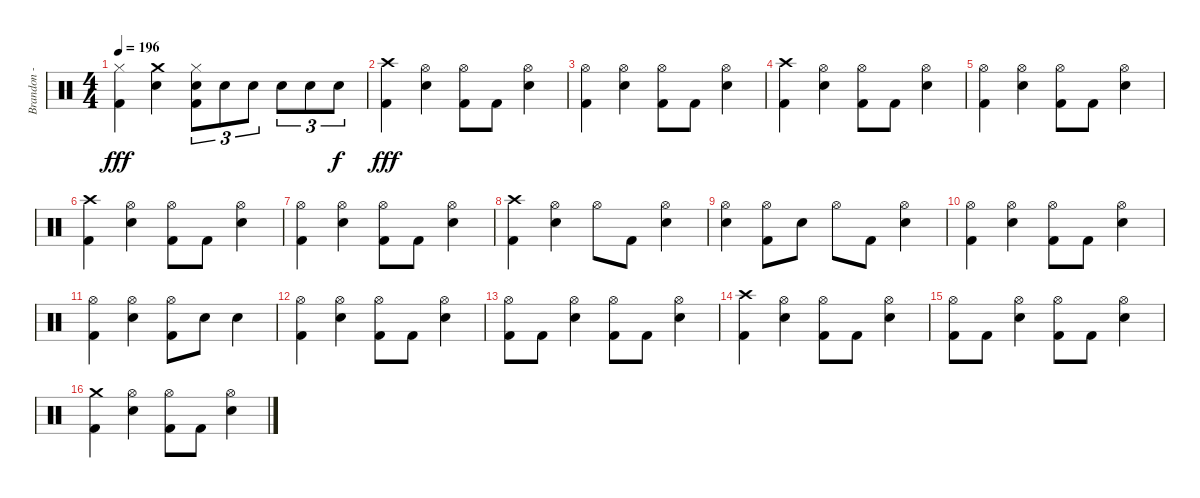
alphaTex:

\track ("Brandon - Drums" "Brandon - ") {instrument percussion}
\staff {score}
\articulation defaults
\ts (4 4)
\tempo 196
\clef neutral
\ks c
("Hi-Hat (closed)" "Kick (hit) 2").4{dy fff} ("Crash medium (hit)" "Snare (hit) 2").4 ("Snare (hit) 2" "Hi-Hat (closed)" "Kick (hit) 2").8{tu (3 2)} "Snare (hit) 2".8{tu (3 2)} "Snare (hit) 2".8{tu (3 2)} "Snare (hit) 2".8{tu (3 2)} "Snare (hit) 2".8{tu (3 2)} "Snare (hit) 2".8{tu (3 2) dy f} |
("Crash high (hit)" "Kick (hit) 2").4{dy fff} ("Hi-Hat (open)" "Snare (hit) 2").4 ("Hi-Hat (open)" "Kick (hit) 2").8 "Kick (hit) 2".8 ("Hi-Hat (open)" "Snare (hit) 2").4 |
("Hi-Hat (open)" "Kick (hit) 2").4 ("Hi-Hat (open)" "Snare (hit) 2").4 ("Hi-Hat (open)" "Kick (hit) 2").8 "Kick (hit) 2".8 ("Hi-Hat (open)" "Snare (hit) 2").4 |
("Crash high (hit)" "Kick (hit) 2").4 ("Hi-Hat (open)" "Snare (hit) 2").4 ("Hi-Hat (open)" "Kick (hit) 2").8 "Kick (hit) 2".8 ("Hi-Hat (open)" "Snare (hit) 2").4 |
("Hi-Hat (open)" "Kick (hit) 2").4 ("Hi-Hat (open)" "Snare (hit) 2").4 ("Hi-Hat (open)" "Kick (hit) 2").8 "Kick (hit) 2".8 ("Hi-Hat (open)" "Snare (hit) 2").4 |
("Crash high (hit)" "Kick (hit) 2").4 ("Hi-Hat (open)" "Snare (hit) 2").4 ("Hi-Hat (open)" "Kick (hit) 2").8 "Kick (hit) 2".8 ("Hi-Hat (open)" "Snare (hit) 2").4 |
("Hi-Hat (open)" "Kick (hit) 2").4 ("Hi-Hat (open)" "Snare (hit) 2").4 ("Hi-Hat (open)" "Kick (hit) 2").8 "Kick (hit) 2".8 ("Hi-Hat (open)" "Snare (hit) 2").4 |
("Crash high (hit)" "Kick (hit) 2").4 ("Hi-Hat (open)" "Snare (hit) 2").4 "Hi-Hat (open)".8 "Kick (hit) 2".8 ("Hi-Hat (open)" "Snare (hit) 2").4 |
("Hi-Hat (open)" "Snare (hit) 2").4 ("Hi-Hat (open)" "Kick (hit) 2").8 "Snare (hit) 2".8 "Hi-Hat (open)".8 "Kick (hit) 2".8 ("Hi-Hat (open)" "Snare (hit) 2").4 |
("Hi-Hat (open)" "Kick (hit) 2").4 ("Hi-Hat (open)" "Snare (hit) 2").4 ("Hi-Hat (open)" "Kick (hit) 2").8 "Kick (hit) 2".8 ("Hi-Hat (open)" "Snare (hit) 2").4 |
("Hi-Hat (open)" "Kick (hit) 2").4 ("Hi-Hat (open)" "Snare (hit) 2").4 ("Hi-Hat (open)" "Kick (hit) 2").8 "Snare (hit) 2".8 "Snare (hit) 2".4 |
("Hi-Hat (open)" "Kick (hit) 2").4 ("Hi-Hat (open)" "Snare (hit) 2").4 ("Hi-Hat (open)" "Kick (hit) 2").8 "Kick (hit) 2".8 ("Hi-Hat (open)" "Snare (hit) 2").4 |
("Hi-Hat (open)" "Kick (hit) 2").8 "Kick (hit) 2".8 ("Hi-Hat (open)" "Snare (hit) 2").4 ("Hi-Hat (open)" "Kick (hit) 2").8 "Kick (hit) 2".8 ("Hi-Hat (open)" "Snare (hit) 2").4 |
("Crash high (hit)" "Kick (hit) 2").4 ("Hi-Hat (open)" "Snare (hit) 2").4 ("Hi-Hat (open)" "Kick (hit) 2").8 "Kick (hit) 2".8 ("Hi-Hat (open)" "Snare (hit) 2").4 |
("Hi-Hat (open)" "Kick (hit) 2").8 "Kick (hit) 2".8 ("Hi-Hat (open)" "Snare (hit) 2").4 ("Hi-Hat (open)" "Kick (hit) 2").8 "Kick (hit) 2".8 ("Hi-Hat (open)" "Snare (hit) 2").4 |
("Crash medium (hit)" "Kick (hit) 2").4 ("Hi-Hat (open)" "Snare (hit) 2").4 ("Hi-Hat (open)" "Kick (hit) 2").8 "Kick (hit) 2".8 ("Hi-Hat (open)" "Snare (hit) 2").4
